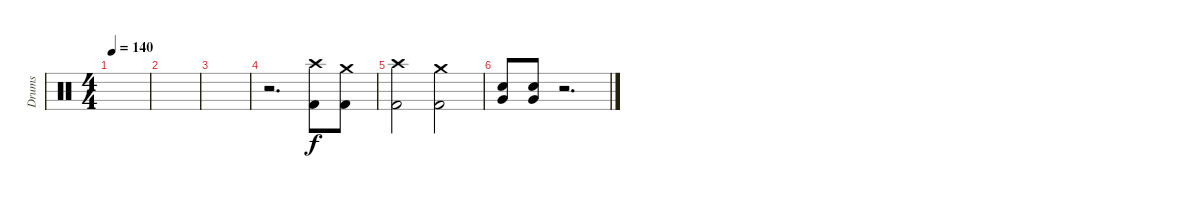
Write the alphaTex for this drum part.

\track ("Drums" "Drums") {instrument percussion}
\staff {score}
\articulation defaults
\ts (4 4)
\tempo 140
\clef neutral
\ks c
|
|
|
r.2{d} ("Crash high (hit)" "Kick (hit) 2").8 ("Crash medium (hit)" "Kick (hit) 2").8 |
("Crash high (hit)" "Kick (hit) 2").2 ("Crash medium (hit)" "Kick (hit) 2").2 |
("Very Low Tom (hit)" "Electric Snare (hit)").8 ("Very Low Tom (hit)" "Electric Snare (hit)").8 r.2{d}
